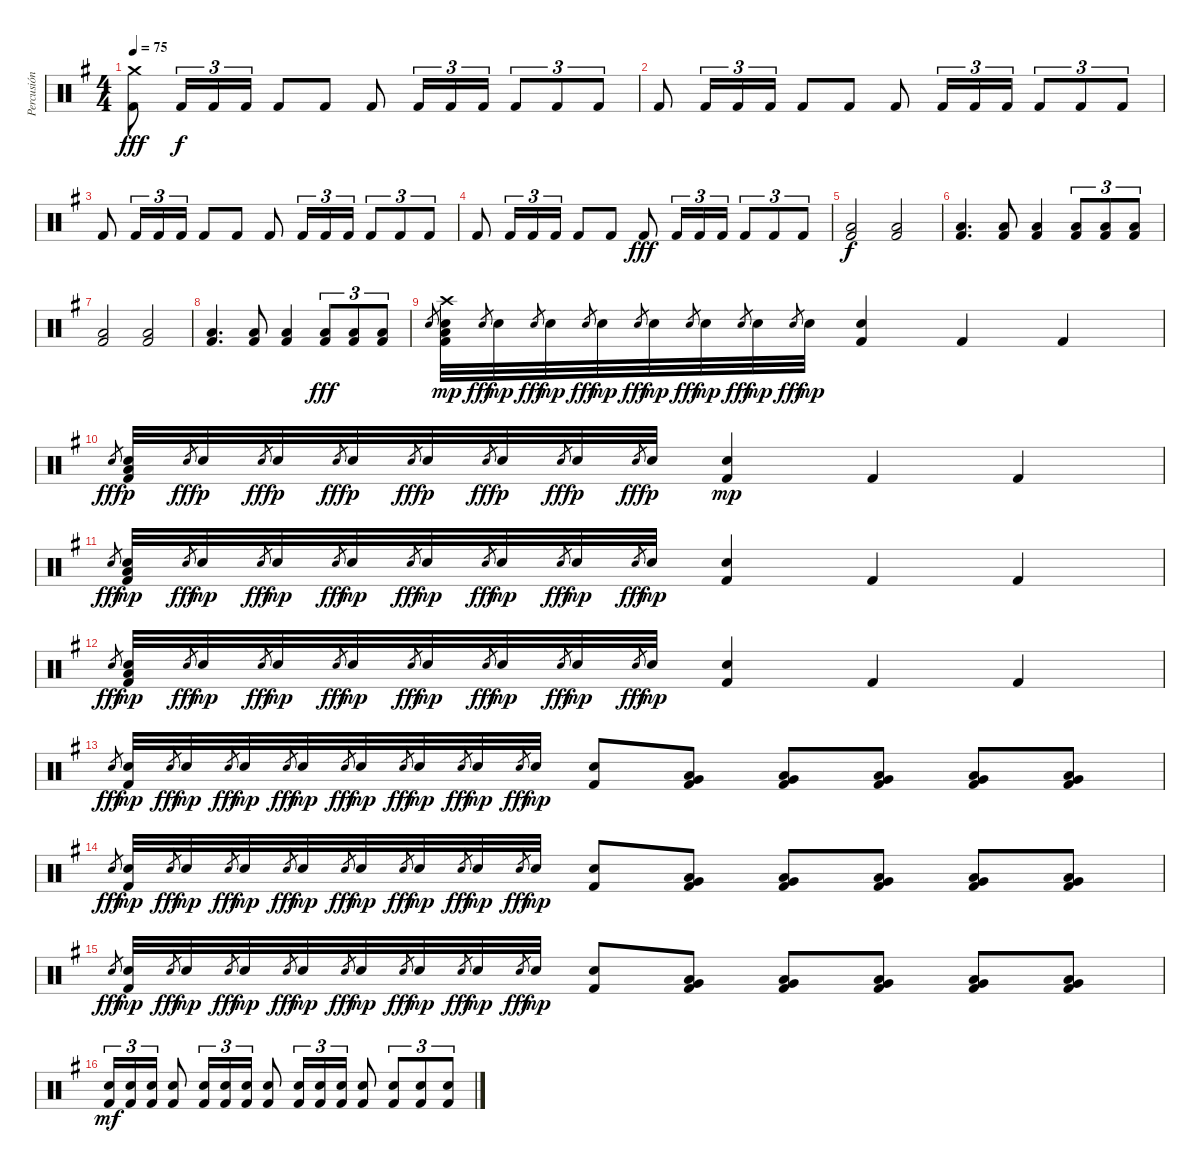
\track ("Percusión" "Percusión") {instrument percussion}
\staff {score}
\articulation defaults
\ts (4 4)
\tempo 75
\clef neutral
\ks g
("Crash medium (hit)" "Kick (hit) 2").8{dy fff} "Kick (hit) 2".16{tu (3 2) dy f} "Kick (hit) 2".16{tu (3 2)} "Kick (hit) 2".16{tu (3 2)} "Kick (hit) 2".8 "Kick (hit) 2".8 "Kick (hit) 2".8 "Kick (hit) 2".16{tu (3 2)} "Kick (hit) 2".16{tu (3 2)} "Kick (hit) 2".16{tu (3 2)} "Kick (hit) 2".8{tu (3 2)} "Kick (hit) 2".8{tu (3 2)} "Kick (hit) 2".8{tu (3 2)} |
"Kick (hit) 2".8 "Kick (hit) 2".16{tu (3 2)} "Kick (hit) 2".16{tu (3 2)} "Kick (hit) 2".16{tu (3 2)} "Kick (hit) 2".8 "Kick (hit) 2".8 "Kick (hit) 2".8 "Kick (hit) 2".16{tu (3 2)} "Kick (hit) 2".16{tu (3 2)} "Kick (hit) 2".16{tu (3 2)} "Kick (hit) 2".8{tu (3 2)} "Kick (hit) 2".8{tu (3 2)} "Kick (hit) 2".8{tu (3 2)} |
"Kick (hit) 2".8 "Kick (hit) 2".16{tu (3 2)} "Kick (hit) 2".16{tu (3 2)} "Kick (hit) 2".16{tu (3 2)} "Kick (hit) 2".8 "Kick (hit) 2".8 "Kick (hit) 2".8 "Kick (hit) 2".16{tu (3 2)} "Kick (hit) 2".16{tu (3 2)} "Kick (hit) 2".16{tu (3 2)} "Kick (hit) 2".8{tu (3 2)} "Kick (hit) 2".8{tu (3 2)} "Kick (hit) 2".8{tu (3 2)} |
"Kick (hit) 2".8 "Kick (hit) 2".16{tu (3 2)} "Kick (hit) 2".16{tu (3 2)} "Kick (hit) 2".16{tu (3 2)} "Kick (hit) 2".8 "Kick (hit) 2".8 "Kick (hit) 2".8{dy fff} "Kick (hit) 2".16{tu (3 2)} "Kick (hit) 2".16{tu (3 2)} "Kick (hit) 2".16{tu (3 2)} "Kick (hit) 2".8{tu (3 2)} "Kick (hit) 2".8{tu (3 2)} "Kick (hit) 2".8{tu (3 2)} |
("Low Floor Tom (hit)" "Kick (hit) 2").2{dy f} ("Low Floor Tom (hit)" "Kick (hit) 2").2 |
("Low Floor Tom (hit)" "Kick (hit) 2").4{d} ("Low Floor Tom (hit)" "Kick (hit) 2").8 ("Low Floor Tom (hit)" "Kick (hit) 2").4 ("Low Floor Tom (hit)" "Kick (hit) 2").8{tu (3 2)} ("Low Floor Tom (hit)" "Kick (hit) 2").8{tu (3 2)} ("Low Floor Tom (hit)" "Kick (hit) 2").8{tu (3 2)} |
("Low Floor Tom (hit)" "Kick (hit) 2").2 ("Low Floor Tom (hit)" "Kick (hit) 2").2 |
("Low Floor Tom (hit)" "Kick (hit) 2").4{d} ("Low Floor Tom (hit)" "Kick (hit) 2").8 ("Low Floor Tom (hit)" "Kick (hit) 2").4 ("Low Floor Tom (hit)" "Kick (hit) 2").8{tu (3 2) dy fff} ("Low Floor Tom (hit)" "Kick (hit) 2").8{tu (3 2)} ("Low Floor Tom (hit)" "Kick (hit) 2").8{tu (3 2)} |
"Electric Snare (hit)".8{gr} ("Crash high (hit)" "Low Floor Tom (hit)" "Electric Snare (hit)" "Kick (hit) 2").32{dy mp} "Electric Snare (hit)".8{gr dy fff} "Electric Snare (hit)".32{dy mp} "Electric Snare (hit)".8{gr dy fff} "Electric Snare (hit)".32{dy mp} "Electric Snare (hit)".8{gr dy fff} "Electric Snare (hit)".32{dy mp} "Electric Snare (hit)".8{gr dy fff} "Electric Snare (hit)".32{dy mp} "Electric Snare (hit)".8{gr dy fff} "Electric Snare (hit)".32{dy mp} "Electric Snare (hit)".8{gr dy fff} "Electric Snare (hit)".32{dy mp} "Electric Snare (hit)".8{gr dy fff} "Electric Snare (hit)".32{dy mp} ("Electric Snare (hit)" "Kick (hit) 2").4 "Kick (hit) 2".4 "Kick (hit) 2".4 |
"Electric Snare (hit)".8{gr dy fff} ("Low Floor Tom (hit)" "Electric Snare (hit)" "Kick (hit) 2").32{dy p} "Electric Snare (hit)".8{gr dy fff} "Snare (hit) 2".32{dy p} "Electric Snare (hit)".8{gr dy fff} "Electric Snare (hit)".32{dy p} "Electric Snare (hit)".8{gr dy fff} "Snare (hit) 2".32{dy p} "Electric Snare (hit)".8{gr dy fff} "Electric Snare (hit)".32{dy p} "Electric Snare (hit)".8{gr dy fff} "Snare (hit) 2".32{dy p} "Electric Snare (hit)".8{gr dy fff} "Electric Snare (hit)".32{dy p} "Electric Snare (hit)".8{gr dy fff} "Snare (hit) 2".32{dy p} ("Electric Snare (hit)" "Kick (hit) 2").4{dy mp} "Kick (hit) 2".4 "Kick (hit) 2".4 |
"Electric Snare (hit)".8{gr dy fff} ("Low Floor Tom (hit)" "Electric Snare (hit)" "Kick (hit) 2").32{dy mp} "Electric Snare (hit)".8{gr dy fff} "Electric Snare (hit)".32{dy mp} "Electric Snare (hit)".8{gr dy fff} "Electric Snare (hit)".32{dy mp} "Electric Snare (hit)".8{gr dy fff} "Electric Snare (hit)".32{dy mp} "Electric Snare (hit)".8{gr dy fff} "Electric Snare (hit)".32{dy mp} "Electric Snare (hit)".8{gr dy fff} "Electric Snare (hit)".32{dy mp} "Electric Snare (hit)".8{gr dy fff} "Electric Snare (hit)".32{dy mp} "Electric Snare (hit)".8{gr dy fff} "Electric Snare (hit)".32{dy mp} ("Electric Snare (hit)" "Kick (hit) 2").4 "Kick (hit) 2".4 "Kick (hit) 2".4 |
"Electric Snare (hit)".8{gr dy fff} ("Low Floor Tom (hit)" "Electric Snare (hit)" "Kick (hit) 2").32{dy mp} "Electric Snare (hit)".8{gr dy fff} "Electric Snare (hit)".32{dy mp} "Electric Snare (hit)".8{gr dy fff} "Electric Snare (hit)".32{dy mp} "Electric Snare (hit)".8{gr dy fff} "Electric Snare (hit)".32{dy mp} "Electric Snare (hit)".8{gr dy fff} "Electric Snare (hit)".32{dy mp} "Electric Snare (hit)".8{gr dy fff} "Electric Snare (hit)".32{dy mp} "Electric Snare (hit)".8{gr dy fff} "Electric Snare (hit)".32{dy mp} "Electric Snare (hit)".8{gr dy fff} "Electric Snare (hit)".32{dy mp} ("Electric Snare (hit)" "Kick (hit) 2").4 "Kick (hit) 2".4 "Kick (hit) 2".4 |
"Electric Snare (hit)".8{gr dy fff} ("Electric Snare (hit)" "Kick (hit) 2").32{dy mp} "Electric Snare (hit)".8{gr dy fff} "Electric Snare (hit)".32{dy mp} "Electric Snare (hit)".8{gr dy fff} "Electric Snare (hit)".32{dy mp} "Electric Snare (hit)".8{gr dy fff} "Electric Snare (hit)".32{dy mp} "Electric Snare (hit)".8{gr dy fff} "Electric Snare (hit)".32{dy mp} "Electric Snare (hit)".8{gr dy fff} "Electric Snare (hit)".32{dy mp} "Electric Snare (hit)".8{gr dy fff} "Electric Snare (hit)".32{dy mp} "Electric Snare (hit)".8{gr dy fff} "Electric Snare (hit)".32{dy mp} ("Electric Snare (hit)" "Kick (hit) 2").8 ("Low Floor Tom (hit)" "Very Low Tom (hit)" "Kick (hit) 2").8 ("Low Floor Tom (hit)" "Very Low Tom (hit)" "Kick (hit) 2").8 ("Low Floor Tom (hit)" "Very Low Tom (hit)" "Kick (hit) 2").8 ("Low Floor Tom (hit)" "Very Low Tom (hit)" "Kick (hit) 2").8 ("Low Floor Tom (hit)" "Very Low Tom (hit)" "Kick (hit) 2").8 |
"Electric Snare (hit)".8{gr dy fff} ("Electric Snare (hit)" "Kick (hit) 2").32{dy mp} "Electric Snare (hit)".8{gr dy fff} "Electric Snare (hit)".32{dy mp} "Electric Snare (hit)".8{gr dy fff} "Electric Snare (hit)".32{dy mp} "Electric Snare (hit)".8{gr dy fff} "Electric Snare (hit)".32{dy mp} "Electric Snare (hit)".8{gr dy fff} "Electric Snare (hit)".32{dy mp} "Electric Snare (hit)".8{gr dy fff} "Electric Snare (hit)".32{dy mp} "Electric Snare (hit)".8{gr dy fff} "Electric Snare (hit)".32{dy mp} "Electric Snare (hit)".8{gr dy fff} "Electric Snare (hit)".32{dy mp} ("Electric Snare (hit)" "Kick (hit) 2").8 ("Low Floor Tom (hit)" "Very Low Tom (hit)" "Kick (hit) 2").8 ("Low Floor Tom (hit)" "Very Low Tom (hit)" "Kick (hit) 2").8 ("Low Floor Tom (hit)" "Very Low Tom (hit)" "Kick (hit) 2").8 ("Low Floor Tom (hit)" "Very Low Tom (hit)" "Kick (hit) 2").8 ("Low Floor Tom (hit)" "Very Low Tom (hit)" "Kick (hit) 2").8 |
"Electric Snare (hit)".8{gr dy fff} ("Electric Snare (hit)" "Kick (hit) 2").32{dy mp} "Electric Snare (hit)".8{gr dy fff} "Electric Snare (hit)".32{dy mp} "Electric Snare (hit)".8{gr dy fff} "Electric Snare (hit)".32{dy mp} "Electric Snare (hit)".8{gr dy fff} "Electric Snare (hit)".32{dy mp} "Electric Snare (hit)".8{gr dy fff} "Electric Snare (hit)".32{dy mp} "Electric Snare (hit)".8{gr dy fff} "Electric Snare (hit)".32{dy mp} "Electric Snare (hit)".8{gr dy fff} "Electric Snare (hit)".32{dy mp} "Electric Snare (hit)".8{gr dy fff} "Electric Snare (hit)".32{dy mp} ("Electric Snare (hit)" "Kick (hit) 2").8 ("Low Floor Tom (hit)" "Very Low Tom (hit)" "Kick (hit) 2").8 ("Low Floor Tom (hit)" "Very Low Tom (hit)" "Kick (hit) 2").8 ("Low Floor Tom (hit)" "Very Low Tom (hit)" "Kick (hit) 2").8 ("Low Floor Tom (hit)" "Very Low Tom (hit)" "Kick (hit) 2").8 ("Low Floor Tom (hit)" "Very Low Tom (hit)" "Kick (hit) 2").8 |
("Electric Snare (hit)" "Kick (hit) 2").16{tu (3 2) dy mf} ("Electric Snare (hit)" "Kick (hit) 2").16{tu (3 2)} ("Electric Snare (hit)" "Kick (hit) 2").16{tu (3 2)} ("Electric Snare (hit)" "Kick (hit) 2").8 ("Electric Snare (hit)" "Kick (hit) 2").16{tu (3 2)} ("Electric Snare (hit)" "Kick (hit) 2").16{tu (3 2)} ("Electric Snare (hit)" "Kick (hit) 2").16{tu (3 2)} ("Electric Snare (hit)" "Kick (hit) 2").8 ("Electric Snare (hit)" "Kick (hit) 2").16{tu (3 2)} ("Electric Snare (hit)" "Kick (hit) 2").16{tu (3 2)} ("Electric Snare (hit)" "Kick (hit) 2").16{tu (3 2)} ("Electric Snare (hit)" "Kick (hit) 2").8 ("Electric Snare (hit)" "Kick (hit) 2").8{tu (3 2)} ("Electric Snare (hit)" "Kick (hit) 2").8{tu (3 2)} ("Electric Snare (hit)" "Kick (hit) 2").8{tu (3 2)}
